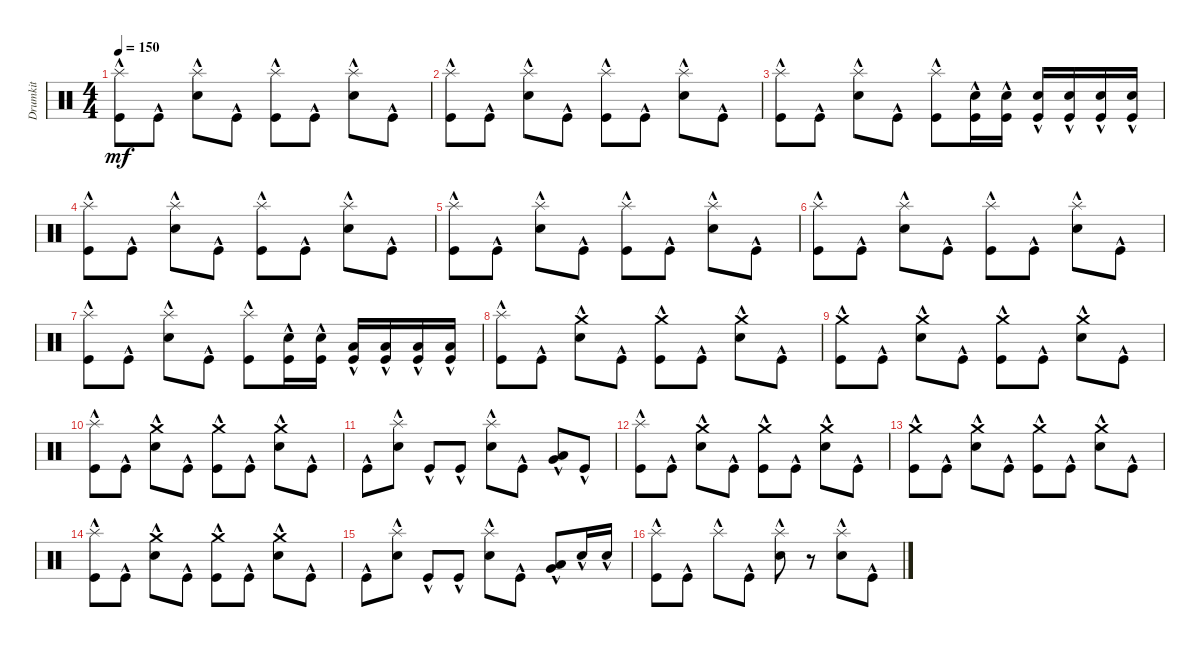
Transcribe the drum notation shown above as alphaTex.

\track ("Drumkit" "Drumkit") {instrument percussion}
\staff {score}
\articulation defaults
\ts (4 4)
\tempo 150
\clef neutral
\ks c
("Kick (hit)"{hac} "Splash (hit)"{hac}).8{dy mf} "Kick (hit)"{hac}.8 ("Snare (hit) 2"{hac} "Splash (hit)"{hac}).8 "Kick (hit)"{hac}.8 ("Kick (hit)"{hac} "Splash (hit)"{hac}).8 "Kick (hit)"{hac}.8 ("Snare (hit) 2"{hac} "Splash (hit)"{hac}).8 "Kick (hit)"{hac}.8 |
("Kick (hit)"{hac} "Splash (hit)"{hac}).8 "Kick (hit)"{hac}.8 ("Snare (hit) 2"{hac} "Splash (hit)"{hac}).8 "Kick (hit)"{hac}.8 ("Kick (hit)"{hac} "Splash (hit)"{hac}).8 "Kick (hit)"{hac}.8 ("Snare (hit) 2"{hac} "Splash (hit)"{hac}).8 "Kick (hit)"{hac}.8 |
("Kick (hit)"{hac} "Splash (hit)"{hac}).8 "Kick (hit)"{hac}.8 ("Snare (hit) 2"{hac} "Splash (hit)"{hac}).8 "Kick (hit)"{hac}.8 ("Kick (hit)"{hac} "Splash (hit)"{hac}).8 ("Snare (hit) 2"{hac} "Kick (hit)").16 ("Snare (hit) 2"{hac} "Kick (hit)").16 ("Snare (hit) 2"{hac} "Kick (hit)").16 ("Snare (hit) 2"{hac} "Kick (hit)").16 ("Snare (hit) 2"{hac} "Kick (hit)").16 ("Snare (hit) 2"{hac} "Kick (hit)").16 |
("Kick (hit)"{hac} "Splash (hit)"{hac}).8 "Kick (hit)"{hac}.8 ("Snare (hit) 2"{hac} "Splash (hit)"{hac}).8 "Kick (hit)"{hac}.8 ("Kick (hit)"{hac} "Splash (hit)"{hac}).8 "Kick (hit)"{hac}.8 ("Snare (hit) 2"{hac} "Splash (hit)"{hac}).8 "Kick (hit)"{hac}.8 |
("Kick (hit)"{hac} "Splash (hit)"{hac}).8 "Kick (hit)"{hac}.8 ("Snare (hit) 2"{hac} "Splash (hit)"{hac}).8 "Kick (hit)"{hac}.8 ("Kick (hit)"{hac} "Splash (hit)"{hac}).8 "Kick (hit)"{hac}.8 ("Snare (hit) 2"{hac} "Splash (hit)"{hac}).8 "Kick (hit)"{hac}.8 |
("Kick (hit)"{hac} "Splash (hit)"{hac}).8 "Kick (hit)"{hac}.8 ("Snare (hit) 2"{hac} "Splash (hit)"{hac}).8 "Kick (hit)"{hac}.8 ("Kick (hit)"{hac} "Splash (hit)"{hac}).8 "Kick (hit)"{hac}.8 ("Snare (hit) 2"{hac} "Splash (hit)"{hac}).8 "Kick (hit)"{hac}.8 |
("Kick (hit)"{hac} "Splash (hit)"{hac}).8 "Kick (hit)"{hac}.8 ("Snare (hit) 2"{hac} "Splash (hit)"{hac}).8 "Kick (hit)"{hac}.8 ("Kick (hit)"{hac} "Splash (hit)"{hac}).8 ("Snare (hit) 2"{hac} "Kick (hit)").16 ("Snare (hit) 2"{hac} "Kick (hit)").16 ("Kick (hit)"{hac} "Low Tom (hit)"{hac}).16 ("Kick (hit)"{hac} "Low Tom (hit)"{hac}).16 ("Kick (hit)"{hac} "Low Tom (hit)"{hac}).16 ("Kick (hit)"{hac} "Low Tom (hit)"{hac}).16 |
("Kick (hit)"{hac} "Splash (hit)"{hac}).8 "Kick (hit)"{hac}.8 ("Snare (hit) 2"{hac} "Crash medium (hit)").8 "Kick (hit)"{hac}.8 ("Kick (hit)"{hac} "Crash medium (hit)").8 "Kick (hit)"{hac}.8 ("Snare (hit) 2"{hac} "Crash medium (hit)").8 "Kick (hit)"{hac}.8 |
("Kick (hit)"{hac} "Crash medium (hit)").8 "Kick (hit)"{hac}.8 ("Snare (hit) 2"{hac} "Crash medium (hit)").8 "Kick (hit)"{hac}.8 ("Kick (hit)"{hac} "Crash medium (hit)").8 "Kick (hit)"{hac}.8 ("Snare (hit) 2"{hac} "Crash medium (hit)").8 "Kick (hit)"{hac}.8 |
("Kick (hit)"{hac} "Splash (hit)"{hac}).8 "Kick (hit)"{hac}.8 ("Snare (hit) 2"{hac} "Crash medium (hit)").8 "Kick (hit)"{hac}.8 ("Kick (hit)"{hac} "Crash medium (hit)").8 "Kick (hit)"{hac}.8 ("Snare (hit) 2"{hac} "Crash medium (hit)").8 "Kick (hit)"{hac}.8 |
"Kick (hit)"{hac}.8 ("Snare (hit) 2"{hac} "Splash (hit)"{hac}).8 "Kick (hit)"{hac}.8 "Kick (hit)"{hac}.8 ("Snare (hit) 2"{hac} "Splash (hit)"{hac}).8 "Kick (hit)"{hac}.8 ("Low Tom (hit)"{hac} "Very Low Tom (hit)"{hac}).8 "Kick (hit)"{hac}.8 |
("Kick (hit)"{hac} "Splash (hit)"{hac}).8 "Kick (hit)"{hac}.8 ("Snare (hit) 2"{hac} "Crash medium (hit)").8 "Kick (hit)"{hac}.8 ("Kick (hit)"{hac} "Crash medium (hit)").8 "Kick (hit)"{hac}.8 ("Snare (hit) 2"{hac} "Crash medium (hit)").8 "Kick (hit)"{hac}.8 |
("Kick (hit)"{hac} "Crash medium (hit)").8 "Kick (hit)"{hac}.8 ("Snare (hit) 2"{hac} "Crash medium (hit)").8 "Kick (hit)"{hac}.8 ("Kick (hit)"{hac} "Crash medium (hit)").8 "Kick (hit)"{hac}.8 ("Snare (hit) 2"{hac} "Crash medium (hit)").8 "Kick (hit)"{hac}.8 |
("Kick (hit)"{hac} "Splash (hit)"{hac}).8 "Kick (hit)"{hac}.8 ("Snare (hit) 2"{hac} "Crash medium (hit)").8 "Kick (hit)"{hac}.8 ("Kick (hit)"{hac} "Crash medium (hit)").8 "Kick (hit)"{hac}.8 ("Snare (hit) 2"{hac} "Crash medium (hit)").8 "Kick (hit)"{hac}.8 |
"Kick (hit)"{hac}.8 ("Snare (hit) 2"{hac} "Splash (hit)"{hac}).8 "Kick (hit)"{hac}.8 "Kick (hit)"{hac}.8 ("Snare (hit) 2"{hac} "Splash (hit)"{hac}).8 "Kick (hit)"{hac}.8 ("Low Tom (hit)"{hac} "Very Low Tom (hit)"{hac}).8 "Snare (hit) 2"{hac}.16 "Snare (hit) 2"{hac}.16 |
("Kick (hit)"{hac} "Splash (hit)"{hac}).8 "Kick (hit)"{hac}.8 "Splash (hit)"{hac}.8 "Kick (hit)"{hac}.8 ("Snare (hit) 2"{hac} "Splash (hit)"{hac}).8 r.8 ("Snare (hit) 2"{hac} "Splash (hit)"{hac}).8 "Kick (hit)"{hac}.8
